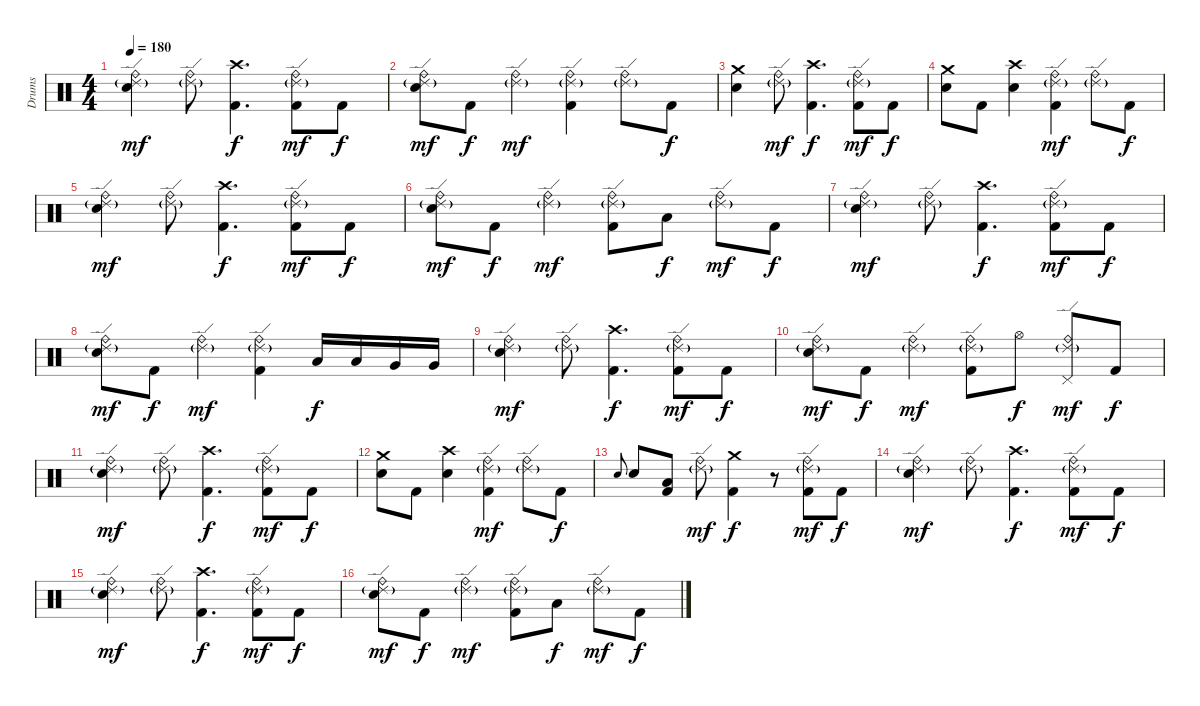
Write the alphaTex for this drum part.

\track ("Drums" "Drums") {instrument percussion}
\staff {score}
\articulation defaults
\ts (4 4)
\tempo 180
\clef neutral
\ks c
("Ride (bell)" "Ride (edge) 2"{g} "Electric Snare (hit)").4{dy mf} ("Ride (bell)" "Ride (edge) 2"{g}).8 ("Crash high (hit)" "Kick (hit) 2").4{d dy f} ("Ride (bell)" "Ride (edge) 2"{g} "Kick (hit) 2").8{dy mf} "Kick (hit) 2".8{dy f} |
("Ride (bell)" "Ride (edge) 2"{g} "Electric Snare (hit)").8{dy mf} "Kick (hit) 2".8{dy f} ("Ride (bell)" "Ride (edge) 2"{g}).4{dy mf} ("Ride (bell)" "Ride (edge) 2"{g} "Kick (hit) 2").4 ("Ride (bell)" "Ride (edge) 2"{g}).8 "Kick (hit) 2".8{dy f} |
("Crash medium (hit)" "Electric Snare (hit)").4 ("Ride (bell)" "Ride (edge) 2"{g}).8{dy mf} ("Crash high (hit)" "Kick (hit) 2").4{d dy f} ("Ride (bell)" "Ride (edge) 2"{g} "Kick (hit) 2").8{dy mf} "Kick (hit) 2".8{dy f} |
("Crash medium (hit)" "Electric Snare (hit)").8 "Kick (hit) 2".8 ("Crash high (hit)" "Electric Snare (hit)").4 ("Ride (bell)" "Ride (edge) 2"{g} "Kick (hit) 2").4{dy mf} ("Ride (bell)" "Ride (edge) 2"{g}).8 "Kick (hit) 2".8{dy f} |
("Ride (bell)" "Ride (edge) 2"{g} "Electric Snare (hit)").4{dy mf} ("Ride (bell)" "Ride (edge) 2"{g}).8 ("Crash high (hit)" "Kick (hit) 2").4{d dy f} ("Ride (bell)" "Ride (edge) 2"{g} "Kick (hit) 2").8{dy mf} "Kick (hit) 2".8{dy f} |
("Ride (bell)" "Ride (edge) 2"{g} "Electric Snare (hit)").8{dy mf} "Kick (hit) 2".8{dy f} ("Ride (bell)" "Ride (edge) 2"{g}).4{dy mf} ("Ride (bell)" "Ride (edge) 2"{g} "Kick (hit) 2").8 "Low Tom (hit)".8{dy f} ("Ride (bell)" "Ride (edge) 2"{g}).8{dy mf} "Kick (hit) 2".8{dy f} |
("Ride (bell)" "Ride (edge) 2"{g} "Electric Snare (hit)").4{dy mf} ("Ride (bell)" "Ride (edge) 2"{g}).8 ("Crash high (hit)" "Kick (hit) 2").4{d dy f} ("Ride (bell)" "Ride (edge) 2"{g} "Kick (hit) 2").8{dy mf} "Kick (hit) 2".8{dy f} |
("Ride (bell)" "Ride (edge) 2"{g} "Electric Snare (hit)").8{dy mf} "Kick (hit) 2".8{dy f} ("Ride (bell)" "Ride (edge) 2"{g}).4{dy mf} ("Ride (bell)" "Ride (edge) 2"{g} "Kick (hit) 2").4 "Low Tom (hit)".16{dy f} "Low Tom (hit)".16 "Very Low Tom (hit)".16 "Very Low Tom (hit)".16 |
("Ride (bell)" "Ride (edge) 2"{g} "Electric Snare (hit)").4{dy mf} ("Ride (bell)" "Ride (edge) 2"{g}).8 ("Crash high (hit)" "Kick (hit) 2").4{d dy f} ("Ride (bell)" "Ride (edge) 2"{g} "Kick (hit) 2").8{dy mf} "Kick (hit) 2".8{dy f} |
("Ride (bell)" "Ride (edge) 2"{g} "Electric Snare (hit)").8{dy mf} "Kick (hit) 2".8{dy f} ("Ride (bell)" "Ride (edge) 2"{g}).4{dy mf} ("Ride (bell)" "Ride (edge) 2"{g} "Kick (hit) 2").8 "Hi-Hat (open)".8{dy f} ("Pedal Hi-Hat (hit)" "Ride (bell)" "Ride (edge) 2"{g}).8{dy mf} "Kick (hit) 2".8{dy f} |
("Ride (bell)" "Ride (edge) 2"{g} "Electric Snare (hit)").4{dy mf} ("Ride (bell)" "Ride (edge) 2"{g}).8 ("Crash high (hit)" "Kick (hit) 2").4{d dy f} ("Ride (bell)" "Ride (edge) 2"{g} "Kick (hit) 2").8{dy mf} "Kick (hit) 2".8{dy f} |
("Crash medium (hit)" "Electric Snare (hit)").8 "Kick (hit) 2".8 ("Crash high (hit)" "Electric Snare (hit)").4 ("Ride (bell)" "Ride (edge) 2"{g} "Kick (hit) 2").4{dy mf} ("Ride (bell)" "Ride (edge) 2"{g}).8 "Kick (hit) 2".8{dy f} |
"Electric Snare (hit)".8{gr onbeat} "Electric Snare (hit)".8 ("Low Tom (hit)" "Kick (hit) 2").8 ("Ride (bell)" "Ride (edge) 2"{g}).8{dy mf} ("Crash medium (hit)" "Kick (hit) 2").4{dy f} r.8 ("Ride (bell)" "Ride (edge) 2"{g} "Kick (hit) 2").8{dy mf} "Kick (hit) 2".8{dy f} |
("Ride (bell)" "Ride (edge) 2"{g} "Electric Snare (hit)").4{dy mf} ("Ride (bell)" "Ride (edge) 2"{g}).8 ("Crash high (hit)" "Kick (hit) 2").4{d dy f} ("Ride (bell)" "Ride (edge) 2"{g} "Kick (hit) 2").8{dy mf} "Kick (hit) 2".8{dy f} |
("Ride (bell)" "Ride (edge) 2"{g} "Electric Snare (hit)").4{dy mf} ("Ride (bell)" "Ride (edge) 2"{g}).8 ("Crash high (hit)" "Kick (hit) 2").4{d dy f} ("Ride (bell)" "Ride (edge) 2"{g} "Kick (hit) 2").8{dy mf} "Kick (hit) 2".8{dy f} |
("Ride (bell)" "Ride (edge) 2"{g} "Electric Snare (hit)").8{dy mf} "Kick (hit) 2".8{dy f} ("Ride (bell)" "Ride (edge) 2"{g}).4{dy mf} ("Ride (bell)" "Ride (edge) 2"{g} "Kick (hit) 2").8 "Low Tom (hit)".8{dy f} ("Ride (bell)" "Ride (edge) 2"{g}).8{dy mf} "Kick (hit) 2".8{dy f}
